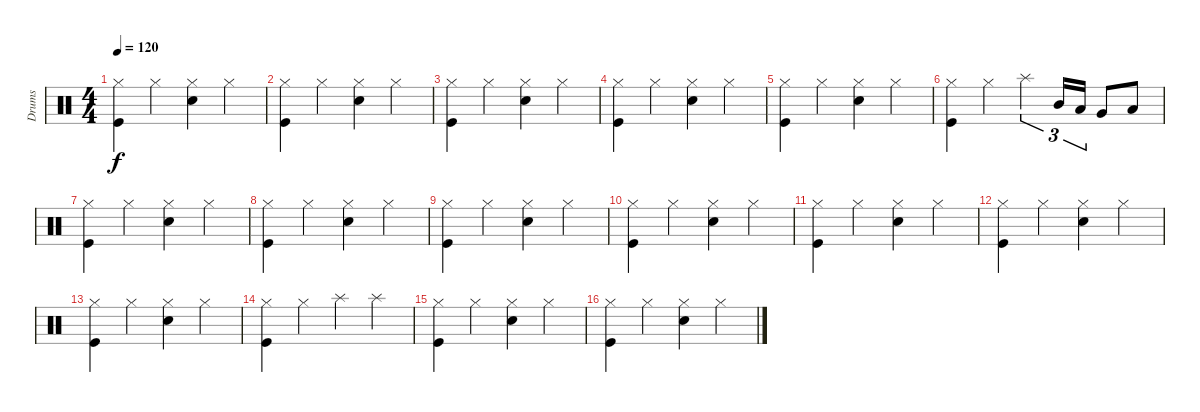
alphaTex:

\track ("Drums" "Drums") {instrument percussion}
\staff {score}
\articulation defaults
\ts (4 4)
\tempo 120
\clef neutral
\ks c
("Hi-Hat (closed)" "Kick (hit)").4{dy f} "Hi-Hat (closed)".4 ("Hi-Hat (closed)" "Snare (hit) 2").4 "Hi-Hat (closed)".4 |
("Hi-Hat (closed)" "Kick (hit)").4 "Hi-Hat (closed)".4 ("Hi-Hat (closed)" "Snare (hit) 2").4 "Hi-Hat (closed)".4 |
("Hi-Hat (closed)" "Kick (hit)").4 "Hi-Hat (closed)".4 ("Hi-Hat (closed)" "Snare (hit) 2").4 "Hi-Hat (closed)".4 |
("Hi-Hat (closed)" "Kick (hit)").4 "Hi-Hat (closed)".4 ("Hi-Hat (closed)" "Snare (hit) 2").4 "Hi-Hat (closed)".4 |
("Hi-Hat (closed)" "Kick (hit)").4 "Hi-Hat (closed)".4 ("Hi-Hat (closed)" "Snare (hit) 2").4 "Hi-Hat (closed)".4 |
("Hi-Hat (closed)" "Kick (hit)").4 "Hi-Hat (closed)".4 "Splash (hit)".4{tu (3 2)} "Mid Tom (hit)".16{tu (3 2)} "Low Tom (hit)".16{tu (3 2)} "Very Low Tom (hit)".8 "Low Floor Tom (hit)".8 |
("Hi-Hat (closed)" "Kick (hit)").4 "Hi-Hat (closed)".4 ("Hi-Hat (closed)" "Snare (hit) 2").4 "Hi-Hat (closed)".4 |
("Hi-Hat (closed)" "Kick (hit)").4 "Hi-Hat (closed)".4 ("Hi-Hat (closed)" "Snare (hit) 2").4 "Hi-Hat (closed)".4 |
("Hi-Hat (closed)" "Kick (hit)").4 "Hi-Hat (closed)".4 ("Hi-Hat (closed)" "Snare (hit) 2").4 "Hi-Hat (closed)".4 |
("Hi-Hat (closed)" "Kick (hit)").4 "Hi-Hat (closed)".4 ("Hi-Hat (closed)" "Snare (hit) 2").4 "Hi-Hat (closed)".4 |
("Hi-Hat (closed)" "Kick (hit)").4 "Hi-Hat (closed)".4 ("Hi-Hat (closed)" "Snare (hit) 2").4 "Hi-Hat (closed)".4 |
("Hi-Hat (closed)" "Kick (hit)").4 "Hi-Hat (closed)".4 ("Hi-Hat (closed)" "Snare (hit) 2").4 "Hi-Hat (closed)".4 |
("Hi-Hat (closed)" "Kick (hit)").4 "Hi-Hat (closed)".4 ("Hi-Hat (closed)" "Snare (hit) 2").4 "Hi-Hat (closed)".4 |
("Hi-Hat (closed)" "Kick (hit)").4 "Hi-Hat (closed)".4 "Splash (hit)".4 "Splash (hit)".4 |
("Hi-Hat (closed)" "Kick (hit)").4 "Hi-Hat (closed)".4 ("Hi-Hat (closed)" "Snare (hit) 2").4 "Hi-Hat (closed)".4 |
("Hi-Hat (closed)" "Kick (hit)").4 "Hi-Hat (closed)".4 ("Hi-Hat (closed)" "Snare (hit) 2").4 "Hi-Hat (closed)".4
